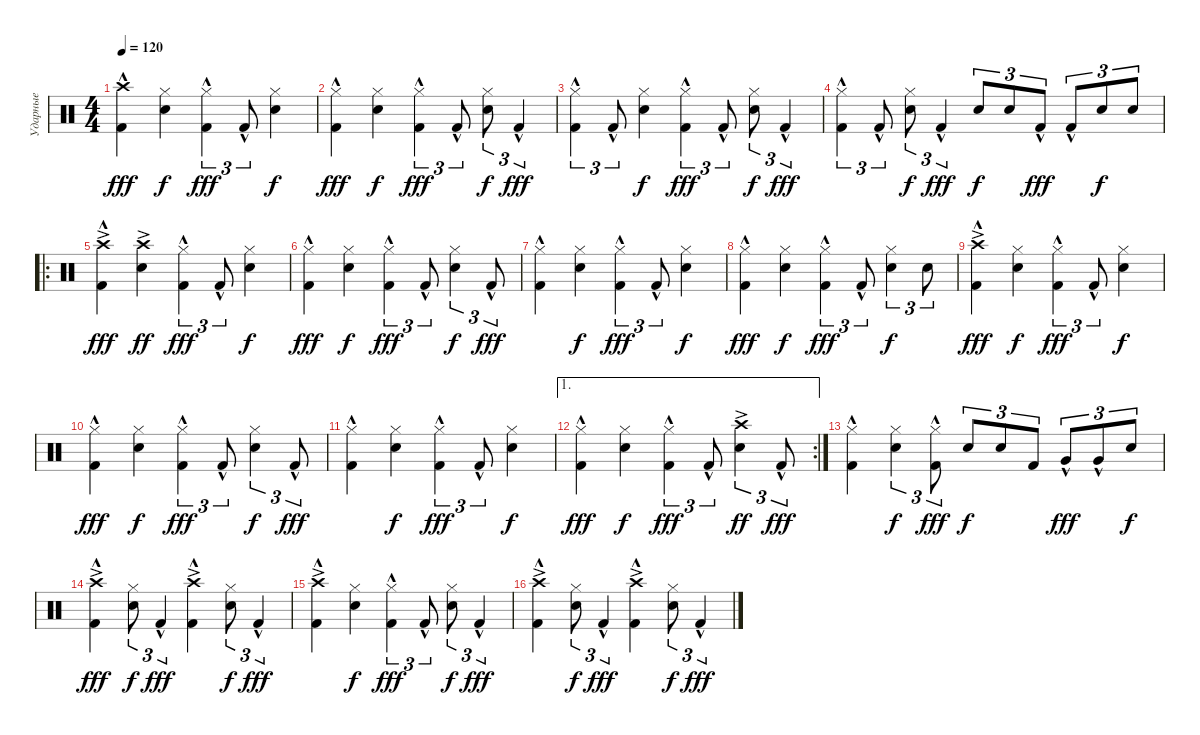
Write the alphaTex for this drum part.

\track ("Ударные" "Ударные") {instrument percussion}
\staff {score}
\articulation defaults
\ts (4 4)
\tempo 120
\clef neutral
\ks c
("Crash high (hit)" "Kick (hit) 2"{hac}).4{dy fff} ("Hi-Hat (closed)" "Snare (hit) 2").4{dy f} ("Hi-Hat (closed)" "Kick (hit) 2"{hac}).4{tu (3 2) dy fff} "Kick (hit) 2"{hac}.8{tu (3 2)} ("Hi-Hat (closed)" "Snare (hit) 2").4{dy f} |
("Hi-Hat (closed)" "Kick (hit) 2"{hac}).4{dy fff} ("Hi-Hat (closed)" "Snare (hit) 2").4{dy f} ("Hi-Hat (closed)" "Kick (hit) 2"{hac}).4{tu (3 2) dy fff} "Kick (hit) 2"{hac}.8{tu (3 2)} ("Hi-Hat (closed)" "Snare (hit) 2").8{tu (3 2) dy f} "Kick (hit) 2"{hac}.4{tu (3 2) dy fff} |
("Hi-Hat (closed)" "Kick (hit) 2"{hac}).4{tu (3 2)} "Kick (hit) 2"{hac}.8{tu (3 2)} ("Hi-Hat (closed)" "Snare (hit) 2").4{dy f} ("Hi-Hat (closed)" "Kick (hit) 2"{hac}).4{tu (3 2) dy fff} "Kick (hit) 2"{hac}.8{tu (3 2)} ("Hi-Hat (closed)" "Snare (hit) 2").8{tu (3 2) dy f} "Kick (hit) 2"{hac}.4{tu (3 2) dy fff} |
("Hi-Hat (closed)" "Kick (hit) 2"{hac}).4{tu (3 2)} "Kick (hit) 2"{hac}.8{tu (3 2)} ("Hi-Hat (closed)" "Snare (hit) 2").8{tu (3 2) dy f} "Kick (hit) 2"{hac}.4{tu (3 2) dy fff} "Snare (hit) 2".8{tu (3 2) dy f} "Snare (hit) 2".8{tu (3 2)} "Kick (hit) 2"{hac}.8{tu (3 2) dy fff} "Kick (hit) 2"{hac}.8{tu (3 2)} "Snare (hit) 2".8{tu (3 2) dy f} "Snare (hit) 2".8{tu (3 2)} |
\ro
("Crash high (hit)"{ac} "Kick (hit) 2"{hac}).4{dy fff} ("Crash high (hit)"{ac} "Snare (hit) 2").4{dy ff} ("Hi-Hat (closed)" "Kick (hit) 2"{hac}).4{tu (3 2) dy fff} "Kick (hit) 2"{hac}.8{tu (3 2)} ("Hi-Hat (closed)" "Snare (hit) 2").4{dy f} |
("Hi-Hat (closed)" "Kick (hit) 2"{hac}).4{dy fff} ("Hi-Hat (closed)" "Snare (hit) 2").4{dy f} ("Hi-Hat (closed)" "Kick (hit) 2"{hac}).4{tu (3 2) dy fff} "Kick (hit) 2"{hac}.8{tu (3 2)} ("Hi-Hat (closed)" "Snare (hit) 2").4{tu (3 2) dy f} "Kick (hit) 2"{hac}.8{tu (3 2) dy fff} |
("Hi-Hat (closed)" "Kick (hit) 2"{hac}).4 ("Hi-Hat (closed)" "Snare (hit) 2").4{dy f} ("Hi-Hat (closed)" "Kick (hit) 2"{hac}).4{tu (3 2) dy fff} "Kick (hit) 2"{hac}.8{tu (3 2)} ("Hi-Hat (closed)" "Snare (hit) 2").4{dy f} |
("Hi-Hat (closed)" "Kick (hit) 2"{hac}).4{dy fff} ("Hi-Hat (closed)" "Snare (hit) 2").4{dy f} ("Hi-Hat (closed)" "Kick (hit) 2"{hac}).4{tu (3 2) dy fff} "Kick (hit) 2"{hac}.8{tu (3 2)} ("Hi-Hat (closed)" "Snare (hit) 2").4{tu (3 2) dy f} "Snare (hit) 2".8{tu (3 2)} |
("Crash high (hit)"{ac} "Kick (hit) 2"{hac}).4{dy fff} ("Hi-Hat (closed)" "Snare (hit) 2").4{dy f} ("Hi-Hat (closed)" "Kick (hit) 2"{hac}).4{tu (3 2) dy fff} "Kick (hit) 2"{hac}.8{tu (3 2)} ("Hi-Hat (closed)" "Snare (hit) 2").4{dy f} |
("Hi-Hat (closed)" "Kick (hit) 2"{hac}).4{dy fff} ("Hi-Hat (closed)" "Snare (hit) 2").4{dy f} ("Hi-Hat (closed)" "Kick (hit) 2"{hac}).4{tu (3 2) dy fff} "Kick (hit) 2"{hac}.8{tu (3 2)} ("Hi-Hat (closed)" "Snare (hit) 2").4{tu (3 2) dy f} "Kick (hit) 2"{hac}.8{tu (3 2) dy fff} |
("Hi-Hat (closed)" "Kick (hit) 2"{hac}).4 ("Hi-Hat (closed)" "Snare (hit) 2").4{dy f} ("Hi-Hat (closed)" "Kick (hit) 2"{hac}).4{tu (3 2) dy fff} "Kick (hit) 2"{hac}.8{tu (3 2)} ("Hi-Hat (closed)" "Snare (hit) 2").4{dy f} |
\ae 1
\rc 2
("Hi-Hat (closed)" "Kick (hit) 2"{hac}).4{dy fff} ("Hi-Hat (closed)" "Snare (hit) 2").4{dy f} ("Hi-Hat (closed)" "Kick (hit) 2"{hac}).4{tu (3 2) dy fff} "Kick (hit) 2"{hac}.8{tu (3 2)} ("Crash high (hit)"{ac} "Snare (hit) 2").4{tu (3 2) dy ff} "Kick (hit) 2"{hac}.8{tu (3 2) dy fff} |
("Hi-Hat (closed)" "Kick (hit) 2"{hac}).4 ("Hi-Hat (closed)" "Snare (hit) 2").4{tu (3 2) dy f} ("Hi-Hat (closed)" "Kick (hit) 2"{hac}).8{tu (3 2) dy fff} "Snare (hit) 2".8{tu (3 2) dy f} "Snare (hit) 2".8{tu (3 2)} "Kick (hit) 2".8{tu (3 2)} "Very Low Tom (hit)"{hac}.8{tu (3 2) dy fff} "Very Low Tom (hit)"{hac}.8{tu (3 2)} "Snare (hit) 2".8{tu (3 2) dy f} |
("Crash high (hit)"{ac} "Kick (hit) 2"{hac}).4{dy fff} ("Hi-Hat (closed)" "Snare (hit) 2").8{tu (3 2) dy f} "Kick (hit) 2"{hac}.4{tu (3 2) dy fff} ("Crash high (hit)"{ac} "Kick (hit) 2"{hac}).4 ("Hi-Hat (closed)" "Snare (hit) 2").8{tu (3 2) dy f} "Kick (hit) 2"{hac}.4{tu (3 2) dy fff} |
("Crash high (hit)"{ac} "Kick (hit) 2"{hac}).4 ("Hi-Hat (closed)" "Snare (hit) 2").4{dy f} ("Hi-Hat (closed)" "Kick (hit) 2"{hac}).4{tu (3 2) dy fff} "Kick (hit) 2"{hac}.8{tu (3 2)} ("Hi-Hat (closed)" "Snare (hit) 2").8{tu (3 2) dy f} "Kick (hit) 2"{hac}.4{tu (3 2) dy fff} |
("Crash high (hit)"{ac} "Kick (hit) 2"{hac}).4 ("Hi-Hat (closed)" "Snare (hit) 2").8{tu (3 2) dy f} "Kick (hit) 2"{hac}.4{tu (3 2) dy fff} ("Crash high (hit)"{ac} "Kick (hit) 2"{hac}).4 ("Hi-Hat (closed)" "Snare (hit) 2").8{tu (3 2) dy f} "Kick (hit) 2"{hac}.4{tu (3 2) dy fff}
